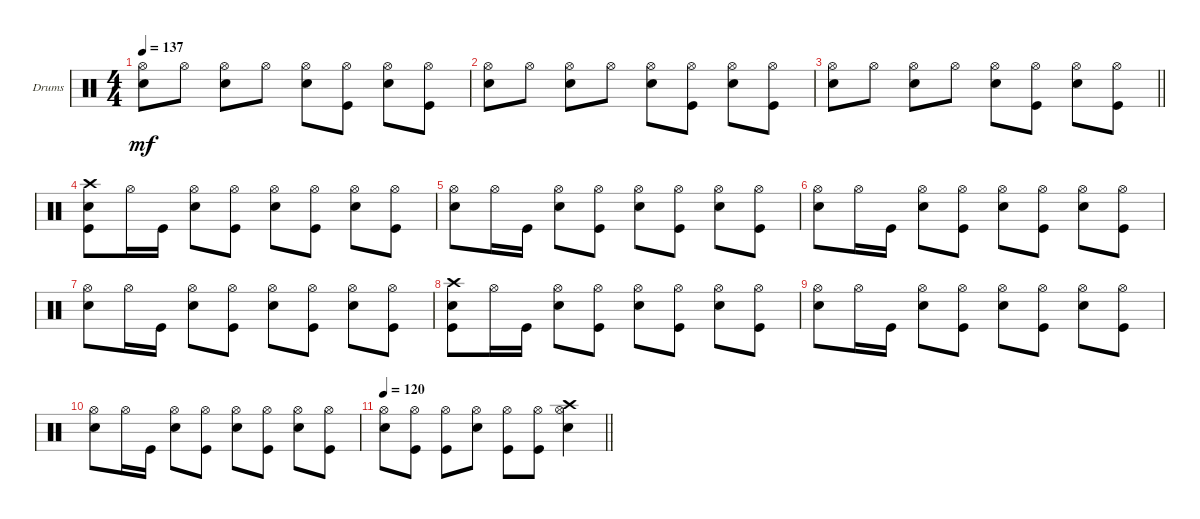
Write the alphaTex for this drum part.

\bracketExtendMode groupsimilarinstruments
\firstSystemTrackNameOrientation horizontal
\otherSystemsTrackNameOrientation horizontal
\track ("Drumkit" "Drums") {instrument percussion}
\staff {score}
\articulation defaults
\ts (4 4)
\tempo 137
\clef neutral
\scale
0.333333
\ks c
("Hi-Hat (open)" "Snare (hit) 2").8{dy mf} "Hi-Hat (open)".8 ("Hi-Hat (open)" "Snare (hit) 2").8 "Hi-Hat (open)".8 ("Hi-Hat (open)" "Snare (hit) 2").8 ("Hi-Hat (open)" "Kick (hit)").8 ("Hi-Hat (open)" "Snare (hit) 2").8 ("Hi-Hat (open)" "Kick (hit)").8 |
\scale
0.333333 ("Hi-Hat (open)" "Snare (hit) 2").8 "Hi-Hat (open)".8 ("Hi-Hat (open)" "Snare (hit) 2").8 "Hi-Hat (open)".8 ("Hi-Hat (open)" "Snare (hit) 2").8 ("Hi-Hat (open)" "Kick (hit)").8 ("Hi-Hat (open)" "Snare (hit) 2").8 ("Hi-Hat (open)" "Kick (hit)").8 |
\scale
0.333333
\barLineRight lightlight
("Hi-Hat (open)" "Snare (hit) 2").8 "Hi-Hat (open)".8 ("Hi-Hat (open)" "Snare (hit) 2").8 "Hi-Hat (open)".8 ("Hi-Hat (open)" "Snare (hit) 2").8 ("Hi-Hat (open)" "Kick (hit)").8 ("Hi-Hat (open)" "Snare (hit) 2").8 ("Hi-Hat (open)" "Kick (hit)").8 |
\scale
0.333333 ("Crash high (hit)" "Kick (hit)" "Snare (hit) 2").8 "Hi-Hat (open)".16 "Kick (hit)".16 ("Hi-Hat (open)" "Snare (hit) 2").8 ("Hi-Hat (open)" "Kick (hit)").8 ("Hi-Hat (open)" "Snare (hit) 2").8 ("Hi-Hat (open)" "Kick (hit)").8 ("Hi-Hat (open)" "Snare (hit) 2").8 ("Hi-Hat (open)" "Kick (hit)").8 |
\scale
0.333333 ("Hi-Hat (open)" "Snare (hit) 2").8 "Hi-Hat (open)".16 "Kick (hit)".16 ("Hi-Hat (open)" "Snare (hit) 2").8 ("Hi-Hat (open)" "Kick (hit)").8 ("Hi-Hat (open)" "Snare (hit) 2").8 ("Hi-Hat (open)" "Kick (hit)").8 ("Hi-Hat (open)" "Snare (hit) 2").8 ("Hi-Hat (open)" "Kick (hit)").8 |
\scale
0.333333 ("Hi-Hat (open)" "Snare (hit) 2").8 "Hi-Hat (open)".16 "Kick (hit)".16 ("Hi-Hat (open)" "Snare (hit) 2").8 ("Hi-Hat (open)" "Kick (hit)").8 ("Hi-Hat (open)" "Snare (hit) 2").8 ("Hi-Hat (open)" "Kick (hit)").8 ("Hi-Hat (open)" "Snare (hit) 2").8 ("Hi-Hat (open)" "Kick (hit)").8 |
\scale
0.333333 ("Hi-Hat (open)" "Snare (hit) 2").8 "Hi-Hat (open)".16 "Kick (hit)".16 ("Hi-Hat (open)" "Snare (hit) 2").8 ("Hi-Hat (open)" "Kick (hit)").8 ("Hi-Hat (open)" "Snare (hit) 2").8 ("Hi-Hat (open)" "Kick (hit)").8 ("Hi-Hat (open)" "Snare (hit) 2").8 ("Hi-Hat (open)" "Kick (hit)").8 |
\scale
0.333333 ("Crash high (hit)" "Kick (hit)" "Snare (hit) 2").8 "Hi-Hat (open)".16 "Kick (hit)".16 ("Hi-Hat (open)" "Snare (hit) 2").8 ("Hi-Hat (open)" "Kick (hit)").8 ("Hi-Hat (open)" "Snare (hit) 2").8 ("Hi-Hat (open)" "Kick (hit)").8 ("Hi-Hat (open)" "Snare (hit) 2").8 ("Hi-Hat (open)" "Kick (hit)").8 |
\scale
0.333333 ("Hi-Hat (open)" "Snare (hit) 2").8 "Hi-Hat (open)".16 "Kick (hit)".16 ("Hi-Hat (open)" "Snare (hit) 2").8 ("Hi-Hat (open)" "Kick (hit)").8 ("Hi-Hat (open)" "Snare (hit) 2").8 ("Hi-Hat (open)" "Kick (hit)").8 ("Hi-Hat (open)" "Snare (hit) 2").8 ("Hi-Hat (open)" "Kick (hit)").8 |
\scale
0.333333 ("Hi-Hat (open)" "Snare (hit) 2").8 "Hi-Hat (open)".16 "Kick (hit)".16 ("Hi-Hat (open)" "Snare (hit) 2").8 ("Hi-Hat (open)" "Kick (hit)").8 ("Hi-Hat (open)" "Snare (hit) 2").8 ("Hi-Hat (open)" "Kick (hit)").8 ("Hi-Hat (open)" "Snare (hit) 2").8 ("Hi-Hat (open)" "Kick (hit)").8 |
\tempo 120
\scale
0.333333
\barLineRight lightlight
("Hi-Hat (open)" "Snare (hit) 2").8 ("Hi-Hat (open)" "Kick (hit)").8 ("Hi-Hat (open)" "Kick (hit)").8 ("Hi-Hat (open)" "Snare (hit) 2").8 ("Hi-Hat (open)" "Kick (hit)").8 ("Hi-Hat (open)" "Kick (hit)").8 ("Hi-Hat (open)" "Snare (hit) 2" "Crash high (hit)").4 |
\scale
0.333333 |
\scale
0.333333 |
\scale
0.333333 |
\scale
0.333333
